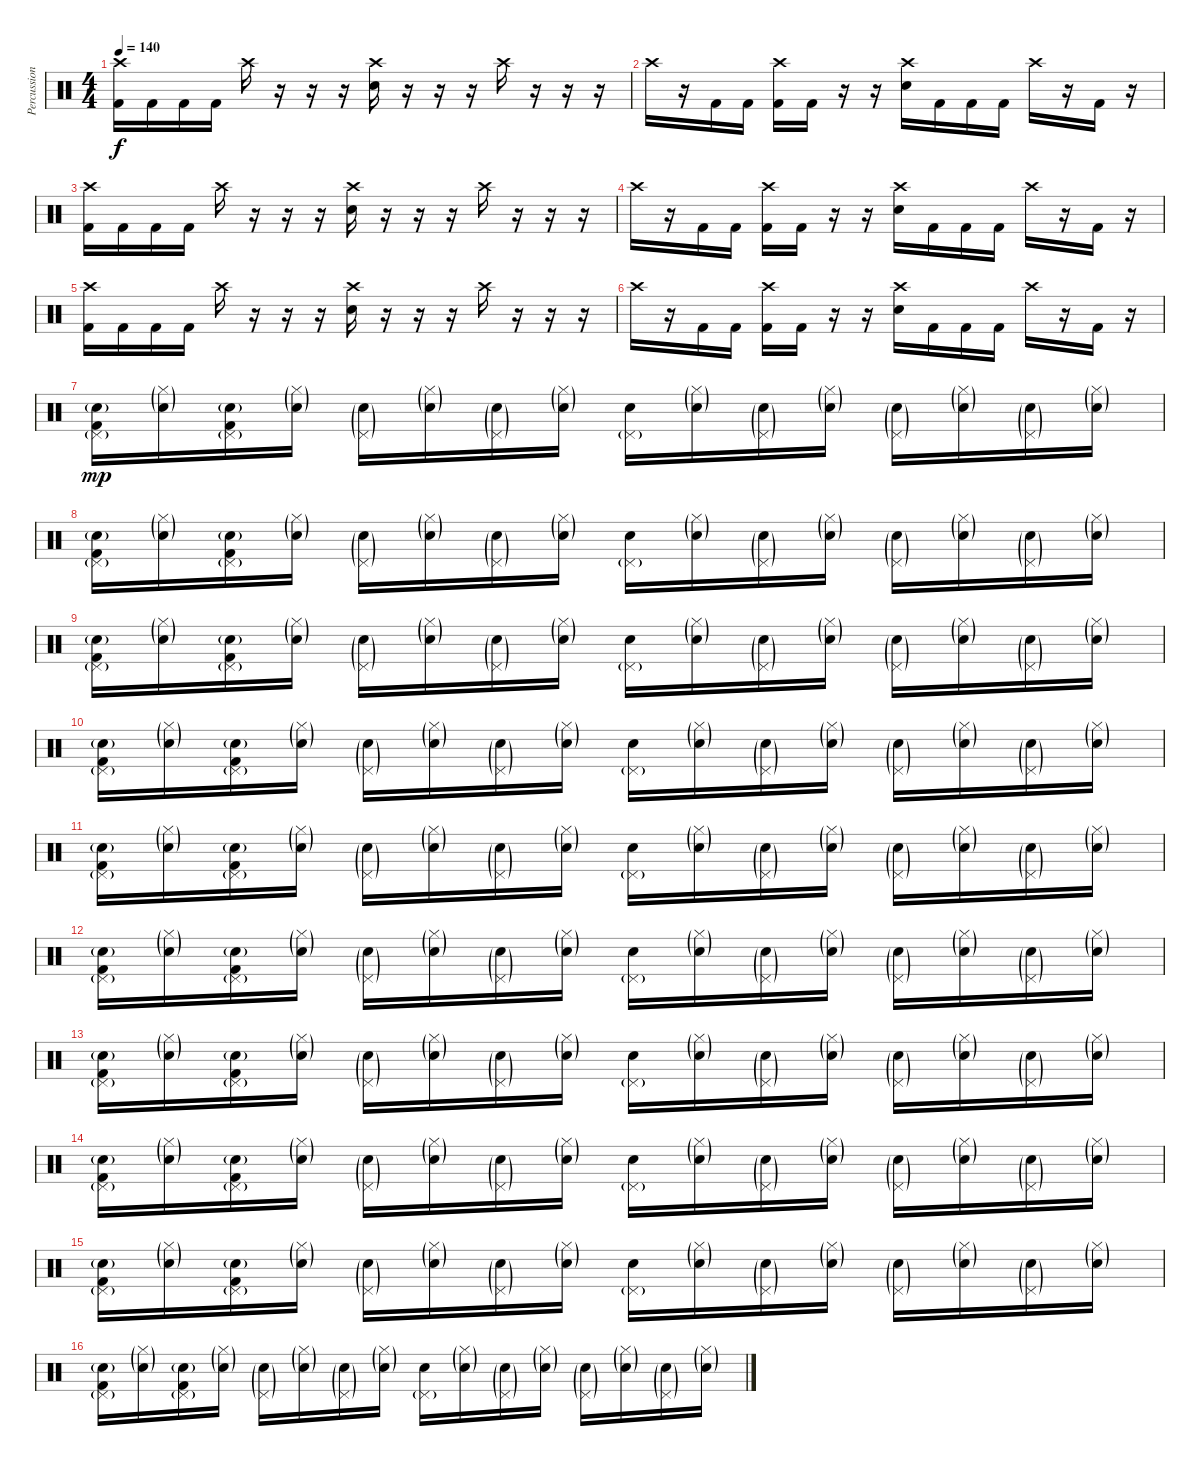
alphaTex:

\track ("Percussion" "Percussion") {instrument percussion}
\staff {score}
\articulation defaults
\ts (4 4)
\tempo 140
\clef neutral
\ks c
("Crash high (hit)" "Kick (hit) 2").16{dy f} "Kick (hit) 2".16 "Kick (hit) 2".16 "Kick (hit) 2".16 "Crash high (hit)".16 r.16 r.16 r.16 ("Crash high (hit)" "Electric Snare (hit)").16 r.16 r.16 r.16 "Crash high (hit)".16 r.16 r.16 r.16 |
"Crash high (hit)".16 r.16 "Kick (hit) 2".16 "Kick (hit) 2".16 ("Crash high (hit)" "Kick (hit) 2").16 "Kick (hit) 2".16 r.16 r.16 ("Crash high (hit)" "Electric Snare (hit)").16 "Kick (hit) 2".16 "Kick (hit) 2".16 "Kick (hit) 2".16 "Crash high (hit)".16 r.16 "Kick (hit) 2".16 r.16 |
("Crash high (hit)" "Kick (hit) 2").16 "Kick (hit) 2".16 "Kick (hit) 2".16 "Kick (hit) 2".16 "Crash high (hit)".16 r.16 r.16 r.16 ("Crash high (hit)" "Electric Snare (hit)").16 r.16 r.16 r.16 "Crash high (hit)".16 r.16 r.16 r.16 |
"Crash high (hit)".16 r.16 "Kick (hit) 2".16 "Kick (hit) 2".16 ("Crash high (hit)" "Kick (hit) 2").16 "Kick (hit) 2".16 r.16 r.16 ("Crash high (hit)" "Electric Snare (hit)").16 "Kick (hit) 2".16 "Kick (hit) 2".16 "Kick (hit) 2".16 "Crash high (hit)".16 r.16 "Kick (hit) 2".16 r.16 |
("Crash high (hit)" "Kick (hit) 2").16 "Kick (hit) 2".16 "Kick (hit) 2".16 "Kick (hit) 2".16 "Crash high (hit)".16 r.16 r.16 r.16 ("Crash high (hit)" "Electric Snare (hit)").16 r.16 r.16 r.16 "Crash high (hit)".16 r.16 r.16 r.16 |
"Crash high (hit)".16 r.16 "Kick (hit) 2".16 "Kick (hit) 2".16 ("Crash high (hit)" "Kick (hit) 2").16 "Kick (hit) 2".16 r.16 r.16 ("Crash high (hit)" "Electric Snare (hit)").16 "Kick (hit) 2".16 "Kick (hit) 2".16 "Kick (hit) 2".16 "Crash high (hit)".16 r.16 "Kick (hit) 2".16 r.16 |
("Pedal Hi-Hat (hit)"{g} "Electric Snare (hit)"{g} "Kick (hit) 2").16{dy mp} ("Hi-Hat (closed)"{g} "Electric Snare (hit)"{g}).16 ("Pedal Hi-Hat (hit)"{g} "Electric Snare (hit)"{g} "Kick (hit) 2").16 ("Hi-Hat (closed)"{g} "Electric Snare (hit)"{g}).16 ("Pedal Hi-Hat (hit)"{g} "Electric Snare (hit)"{g}).16 ("Hi-Hat (closed)"{g} "Electric Snare (hit)"{g}).16 ("Pedal Hi-Hat (hit)"{g} "Electric Snare (hit)"{g}).16 ("Hi-Hat (closed)"{g} "Electric Snare (hit)"{g}).16 ("Pedal Hi-Hat (hit)"{g} "Electric Snare (hit)").16 ("Hi-Hat (closed)"{g} "Electric Snare (hit)"{g}).16 ("Pedal Hi-Hat (hit)"{g} "Electric Snare (hit)"{g}).16 ("Hi-Hat (closed)"{g} "Electric Snare (hit)"{g}).16 ("Pedal Hi-Hat (hit)"{g} "Electric Snare (hit)"{g}).16 ("Hi-Hat (closed)"{g} "Electric Snare (hit)"{g}).16 ("Pedal Hi-Hat (hit)"{g} "Electric Snare (hit)"{g}).16 ("Hi-Hat (closed)"{g} "Electric Snare (hit)"{g}).16 |
("Pedal Hi-Hat (hit)"{g} "Electric Snare (hit)"{g} "Kick (hit) 2").16 ("Hi-Hat (closed)"{g} "Electric Snare (hit)"{g}).16 ("Pedal Hi-Hat (hit)"{g} "Electric Snare (hit)"{g} "Kick (hit) 2").16 ("Hi-Hat (closed)"{g} "Electric Snare (hit)"{g}).16 ("Pedal Hi-Hat (hit)"{g} "Electric Snare (hit)"{g}).16 ("Hi-Hat (closed)"{g} "Electric Snare (hit)"{g}).16 ("Pedal Hi-Hat (hit)"{g} "Electric Snare (hit)"{g}).16 ("Hi-Hat (closed)"{g} "Electric Snare (hit)"{g}).16 ("Pedal Hi-Hat (hit)"{g} "Electric Snare (hit)").16 ("Hi-Hat (closed)"{g} "Electric Snare (hit)"{g}).16 ("Pedal Hi-Hat (hit)"{g} "Electric Snare (hit)"{g}).16 ("Hi-Hat (closed)"{g} "Electric Snare (hit)"{g}).16 ("Pedal Hi-Hat (hit)"{g} "Electric Snare (hit)"{g}).16 ("Hi-Hat (closed)"{g} "Electric Snare (hit)"{g}).16 ("Pedal Hi-Hat (hit)"{g} "Electric Snare (hit)"{g}).16 ("Hi-Hat (closed)"{g} "Electric Snare (hit)"{g}).16 |
("Pedal Hi-Hat (hit)"{g} "Electric Snare (hit)"{g} "Kick (hit) 2").16 ("Hi-Hat (closed)"{g} "Electric Snare (hit)"{g}).16 ("Pedal Hi-Hat (hit)"{g} "Electric Snare (hit)"{g} "Kick (hit) 2").16 ("Hi-Hat (closed)"{g} "Electric Snare (hit)"{g}).16 ("Pedal Hi-Hat (hit)"{g} "Electric Snare (hit)"{g}).16 ("Hi-Hat (closed)"{g} "Electric Snare (hit)"{g}).16 ("Pedal Hi-Hat (hit)"{g} "Electric Snare (hit)"{g}).16 ("Hi-Hat (closed)"{g} "Electric Snare (hit)"{g}).16 ("Pedal Hi-Hat (hit)"{g} "Electric Snare (hit)").16 ("Hi-Hat (closed)"{g} "Electric Snare (hit)"{g}).16 ("Pedal Hi-Hat (hit)"{g} "Electric Snare (hit)"{g}).16 ("Hi-Hat (closed)"{g} "Electric Snare (hit)"{g}).16 ("Pedal Hi-Hat (hit)"{g} "Electric Snare (hit)"{g}).16 ("Hi-Hat (closed)"{g} "Electric Snare (hit)"{g}).16 ("Pedal Hi-Hat (hit)"{g} "Electric Snare (hit)"{g}).16 ("Hi-Hat (closed)"{g} "Electric Snare (hit)"{g}).16 |
("Pedal Hi-Hat (hit)"{g} "Electric Snare (hit)"{g} "Kick (hit) 2").16 ("Hi-Hat (closed)"{g} "Electric Snare (hit)"{g}).16 ("Pedal Hi-Hat (hit)"{g} "Electric Snare (hit)"{g} "Kick (hit) 2").16 ("Hi-Hat (closed)"{g} "Electric Snare (hit)"{g}).16 ("Pedal Hi-Hat (hit)"{g} "Electric Snare (hit)"{g}).16 ("Hi-Hat (closed)"{g} "Electric Snare (hit)"{g}).16 ("Pedal Hi-Hat (hit)"{g} "Electric Snare (hit)"{g}).16 ("Hi-Hat (closed)"{g} "Electric Snare (hit)"{g}).16 ("Pedal Hi-Hat (hit)"{g} "Electric Snare (hit)").16 ("Hi-Hat (closed)"{g} "Electric Snare (hit)"{g}).16 ("Pedal Hi-Hat (hit)"{g} "Electric Snare (hit)"{g}).16 ("Hi-Hat (closed)"{g} "Electric Snare (hit)"{g}).16 ("Pedal Hi-Hat (hit)"{g} "Electric Snare (hit)"{g}).16 ("Hi-Hat (closed)"{g} "Electric Snare (hit)"{g}).16 ("Pedal Hi-Hat (hit)"{g} "Electric Snare (hit)"{g}).16 ("Hi-Hat (closed)"{g} "Electric Snare (hit)"{g}).16 |
("Pedal Hi-Hat (hit)"{g} "Electric Snare (hit)"{g} "Kick (hit) 2").16 ("Hi-Hat (closed)"{g} "Electric Snare (hit)"{g}).16 ("Pedal Hi-Hat (hit)"{g} "Electric Snare (hit)"{g} "Kick (hit) 2").16 ("Hi-Hat (closed)"{g} "Electric Snare (hit)"{g}).16 ("Pedal Hi-Hat (hit)"{g} "Electric Snare (hit)"{g}).16 ("Hi-Hat (closed)"{g} "Electric Snare (hit)"{g}).16 ("Pedal Hi-Hat (hit)"{g} "Electric Snare (hit)"{g}).16 ("Hi-Hat (closed)"{g} "Electric Snare (hit)"{g}).16 ("Pedal Hi-Hat (hit)"{g} "Electric Snare (hit)").16 ("Hi-Hat (closed)"{g} "Electric Snare (hit)"{g}).16 ("Pedal Hi-Hat (hit)"{g} "Electric Snare (hit)"{g}).16 ("Hi-Hat (closed)"{g} "Electric Snare (hit)"{g}).16 ("Pedal Hi-Hat (hit)"{g} "Electric Snare (hit)"{g}).16 ("Hi-Hat (closed)"{g} "Electric Snare (hit)"{g}).16 ("Pedal Hi-Hat (hit)"{g} "Electric Snare (hit)"{g}).16 ("Hi-Hat (closed)"{g} "Electric Snare (hit)"{g}).16 |
("Pedal Hi-Hat (hit)"{g} "Electric Snare (hit)"{g} "Kick (hit) 2").16 ("Hi-Hat (closed)"{g} "Electric Snare (hit)"{g}).16 ("Pedal Hi-Hat (hit)"{g} "Electric Snare (hit)"{g} "Kick (hit) 2").16 ("Hi-Hat (closed)"{g} "Electric Snare (hit)"{g}).16 ("Pedal Hi-Hat (hit)"{g} "Electric Snare (hit)"{g}).16 ("Hi-Hat (closed)"{g} "Electric Snare (hit)"{g}).16 ("Pedal Hi-Hat (hit)"{g} "Electric Snare (hit)"{g}).16 ("Hi-Hat (closed)"{g} "Electric Snare (hit)"{g}).16 ("Pedal Hi-Hat (hit)"{g} "Electric Snare (hit)").16 ("Hi-Hat (closed)"{g} "Electric Snare (hit)"{g}).16 ("Pedal Hi-Hat (hit)"{g} "Electric Snare (hit)"{g}).16 ("Hi-Hat (closed)"{g} "Electric Snare (hit)"{g}).16 ("Pedal Hi-Hat (hit)"{g} "Electric Snare (hit)"{g}).16 ("Hi-Hat (closed)"{g} "Electric Snare (hit)"{g}).16 ("Pedal Hi-Hat (hit)"{g} "Electric Snare (hit)"{g}).16 ("Hi-Hat (closed)"{g} "Electric Snare (hit)"{g}).16 |
("Pedal Hi-Hat (hit)"{g} "Electric Snare (hit)"{g} "Kick (hit) 2").16 ("Hi-Hat (closed)"{g} "Electric Snare (hit)"{g}).16 ("Pedal Hi-Hat (hit)"{g} "Electric Snare (hit)"{g} "Kick (hit) 2").16 ("Hi-Hat (closed)"{g} "Electric Snare (hit)"{g}).16 ("Pedal Hi-Hat (hit)"{g} "Electric Snare (hit)"{g}).16 ("Hi-Hat (closed)"{g} "Electric Snare (hit)"{g}).16 ("Pedal Hi-Hat (hit)"{g} "Electric Snare (hit)"{g}).16 ("Hi-Hat (closed)"{g} "Electric Snare (hit)"{g}).16 ("Pedal Hi-Hat (hit)"{g} "Electric Snare (hit)").16 ("Hi-Hat (closed)"{g} "Electric Snare (hit)"{g}).16 ("Pedal Hi-Hat (hit)"{g} "Electric Snare (hit)"{g}).16 ("Hi-Hat (closed)"{g} "Electric Snare (hit)"{g}).16 ("Pedal Hi-Hat (hit)"{g} "Electric Snare (hit)"{g}).16 ("Hi-Hat (closed)"{g} "Electric Snare (hit)"{g}).16 ("Pedal Hi-Hat (hit)"{g} "Electric Snare (hit)"{g}).16 ("Hi-Hat (closed)"{g} "Electric Snare (hit)"{g}).16 |
("Pedal Hi-Hat (hit)"{g} "Electric Snare (hit)"{g} "Kick (hit) 2").16 ("Hi-Hat (closed)"{g} "Electric Snare (hit)"{g}).16 ("Pedal Hi-Hat (hit)"{g} "Electric Snare (hit)"{g} "Kick (hit) 2").16 ("Hi-Hat (closed)"{g} "Electric Snare (hit)"{g}).16 ("Pedal Hi-Hat (hit)"{g} "Electric Snare (hit)"{g}).16 ("Hi-Hat (closed)"{g} "Electric Snare (hit)"{g}).16 ("Pedal Hi-Hat (hit)"{g} "Electric Snare (hit)"{g}).16 ("Hi-Hat (closed)"{g} "Electric Snare (hit)"{g}).16 ("Pedal Hi-Hat (hit)"{g} "Electric Snare (hit)").16 ("Hi-Hat (closed)"{g} "Electric Snare (hit)"{g}).16 ("Pedal Hi-Hat (hit)"{g} "Electric Snare (hit)"{g}).16 ("Hi-Hat (closed)"{g} "Electric Snare (hit)"{g}).16 ("Pedal Hi-Hat (hit)"{g} "Electric Snare (hit)"{g}).16 ("Hi-Hat (closed)"{g} "Electric Snare (hit)"{g}).16 ("Pedal Hi-Hat (hit)"{g} "Electric Snare (hit)"{g}).16 ("Hi-Hat (closed)"{g} "Electric Snare (hit)"{g}).16 |
("Pedal Hi-Hat (hit)"{g} "Electric Snare (hit)"{g} "Kick (hit) 2").16 ("Hi-Hat (closed)"{g} "Electric Snare (hit)"{g}).16 ("Pedal Hi-Hat (hit)"{g} "Electric Snare (hit)"{g} "Kick (hit) 2").16 ("Hi-Hat (closed)"{g} "Electric Snare (hit)"{g}).16 ("Pedal Hi-Hat (hit)"{g} "Electric Snare (hit)"{g}).16 ("Hi-Hat (closed)"{g} "Electric Snare (hit)"{g}).16 ("Pedal Hi-Hat (hit)"{g} "Electric Snare (hit)"{g}).16 ("Hi-Hat (closed)"{g} "Electric Snare (hit)"{g}).16 ("Pedal Hi-Hat (hit)"{g} "Electric Snare (hit)").16 ("Hi-Hat (closed)"{g} "Electric Snare (hit)"{g}).16 ("Pedal Hi-Hat (hit)"{g} "Electric Snare (hit)"{g}).16 ("Hi-Hat (closed)"{g} "Electric Snare (hit)"{g}).16 ("Pedal Hi-Hat (hit)"{g} "Electric Snare (hit)"{g}).16 ("Hi-Hat (closed)"{g} "Electric Snare (hit)"{g}).16 ("Pedal Hi-Hat (hit)"{g} "Electric Snare (hit)"{g}).16 ("Hi-Hat (closed)"{g} "Electric Snare (hit)"{g}).16 |
("Pedal Hi-Hat (hit)"{g} "Electric Snare (hit)"{g} "Kick (hit) 2").16 ("Hi-Hat (closed)"{g} "Electric Snare (hit)"{g}).16 ("Pedal Hi-Hat (hit)"{g} "Electric Snare (hit)"{g} "Kick (hit) 2").16 ("Hi-Hat (closed)"{g} "Electric Snare (hit)"{g}).16 ("Pedal Hi-Hat (hit)"{g} "Electric Snare (hit)"{g}).16 ("Hi-Hat (closed)"{g} "Electric Snare (hit)"{g}).16 ("Pedal Hi-Hat (hit)"{g} "Electric Snare (hit)"{g}).16 ("Hi-Hat (closed)"{g} "Electric Snare (hit)"{g}).16 ("Pedal Hi-Hat (hit)"{g} "Electric Snare (hit)").16 ("Hi-Hat (closed)"{g} "Electric Snare (hit)"{g}).16 ("Pedal Hi-Hat (hit)"{g} "Electric Snare (hit)"{g}).16 ("Hi-Hat (closed)"{g} "Electric Snare (hit)"{g}).16 ("Pedal Hi-Hat (hit)"{g} "Electric Snare (hit)"{g}).16 ("Hi-Hat (closed)"{g} "Electric Snare (hit)"{g}).16 ("Pedal Hi-Hat (hit)"{g} "Electric Snare (hit)"{g}).16 ("Hi-Hat (closed)"{g} "Electric Snare (hit)"{g}).16
